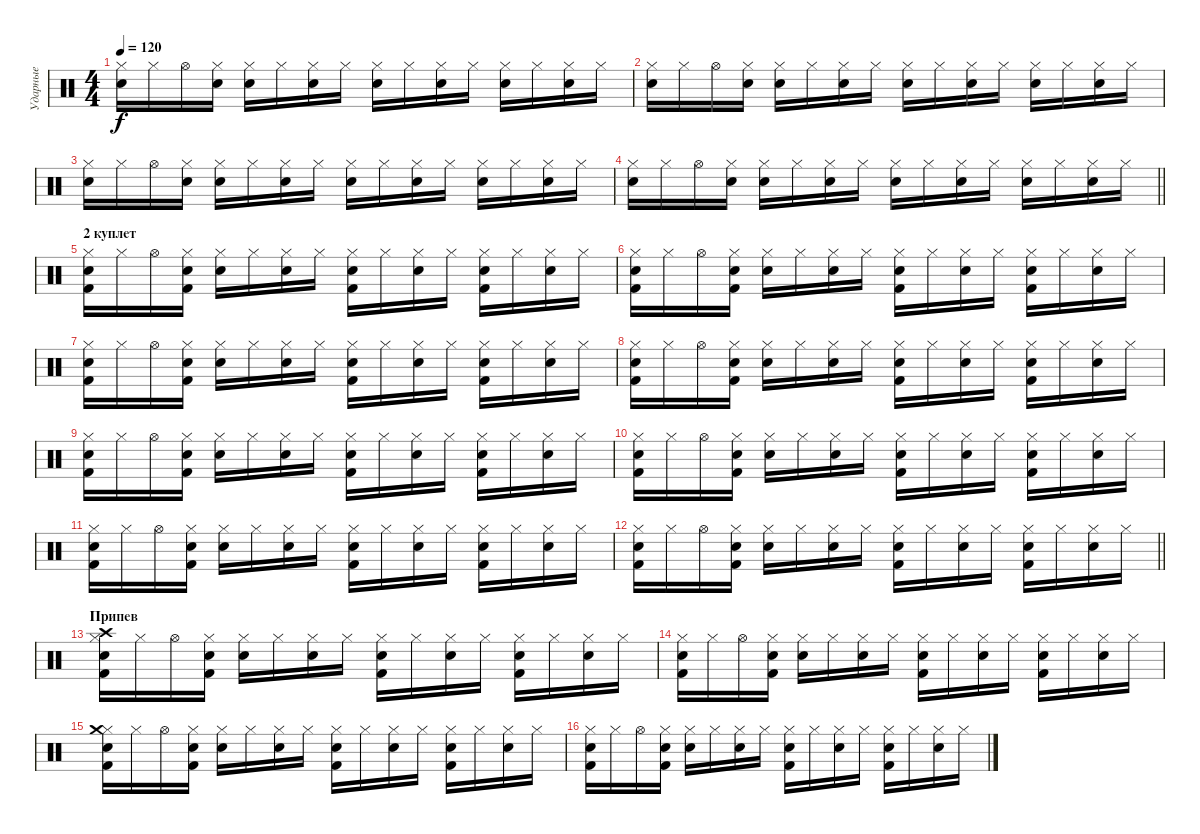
\track ("Ударные" "Ударные") {instrument percussion}
\staff {score}
\articulation defaults
\ts (4 4)
\tempo 120
\clef neutral
\ks c
("Hi-Hat (closed)" "Snare (hit) 2").16{dy f} "Hi-Hat (closed)".16 "Hi-Hat (open)".16 ("Hi-Hat (closed)" "Snare (hit) 2").16 ("Hi-Hat (closed)" "Snare (hit) 2").16 "Hi-Hat (closed)".16 ("Hi-Hat (closed)" "Snare (hit) 2").16 "Hi-Hat (closed)".16 ("Hi-Hat (closed)" "Snare (hit) 2").16 "Hi-Hat (closed)".16 ("Hi-Hat (closed)" "Snare (hit) 2").16 "Hi-Hat (closed)".16 ("Hi-Hat (closed)" "Snare (hit) 2").16 "Hi-Hat (closed)".16 ("Hi-Hat (closed)" "Snare (hit) 2").16 "Hi-Hat (closed)".16 |
("Hi-Hat (closed)" "Snare (hit) 2").16 "Hi-Hat (closed)".16 "Hi-Hat (open)".16 ("Hi-Hat (closed)" "Snare (hit) 2").16 ("Hi-Hat (closed)" "Snare (hit) 2").16 "Hi-Hat (closed)".16 ("Hi-Hat (closed)" "Snare (hit) 2").16 "Hi-Hat (closed)".16 ("Hi-Hat (closed)" "Snare (hit) 2").16 "Hi-Hat (closed)".16 ("Hi-Hat (closed)" "Snare (hit) 2").16 "Hi-Hat (closed)".16 ("Hi-Hat (closed)" "Snare (hit) 2").16 "Hi-Hat (closed)".16 ("Hi-Hat (closed)" "Snare (hit) 2").16 "Hi-Hat (closed)".16 |
("Hi-Hat (closed)" "Snare (hit) 2").16 "Hi-Hat (closed)".16 "Hi-Hat (open)".16 ("Hi-Hat (closed)" "Snare (hit) 2").16 ("Hi-Hat (closed)" "Snare (hit) 2").16 "Hi-Hat (closed)".16 ("Hi-Hat (closed)" "Snare (hit) 2").16 "Hi-Hat (closed)".16 ("Hi-Hat (closed)" "Snare (hit) 2").16 "Hi-Hat (closed)".16 ("Hi-Hat (closed)" "Snare (hit) 2").16 "Hi-Hat (closed)".16 ("Hi-Hat (closed)" "Snare (hit) 2").16 "Hi-Hat (closed)".16 ("Hi-Hat (closed)" "Snare (hit) 2").16 "Hi-Hat (closed)".16 |
\barLineRight lightlight
("Hi-Hat (closed)" "Snare (hit) 2").16 "Hi-Hat (closed)".16 "Hi-Hat (open)".16 ("Hi-Hat (closed)" "Snare (hit) 2").16 ("Hi-Hat (closed)" "Snare (hit) 2").16 "Hi-Hat (closed)".16 ("Hi-Hat (closed)" "Snare (hit) 2").16 "Hi-Hat (closed)".16 ("Hi-Hat (closed)" "Snare (hit) 2").16 "Hi-Hat (closed)".16 ("Hi-Hat (closed)" "Snare (hit) 2").16 "Hi-Hat (closed)".16 ("Hi-Hat (closed)" "Snare (hit) 2").16 "Hi-Hat (closed)".16 ("Hi-Hat (closed)" "Snare (hit) 2").16 "Hi-Hat (closed)".16 |
\section ("" "2 куплет")
("Hi-Hat (closed)" "Snare (hit) 2" "Kick (hit) 2").16 "Hi-Hat (closed)".16 "Hi-Hat (open)".16 ("Hi-Hat (closed)" "Snare (hit) 2" "Kick (hit) 2").16 ("Hi-Hat (closed)" "Snare (hit) 2").16 "Hi-Hat (closed)".16 ("Hi-Hat (closed)" "Snare (hit) 2").16 "Hi-Hat (closed)".16 ("Hi-Hat (closed)" "Snare (hit) 2" "Kick (hit) 2").16 "Hi-Hat (closed)".16 ("Hi-Hat (closed)" "Snare (hit) 2").16 "Hi-Hat (closed)".16 ("Hi-Hat (closed)" "Snare (hit) 2" "Kick (hit) 2").16 "Hi-Hat (closed)".16 ("Hi-Hat (closed)" "Snare (hit) 2").16 "Hi-Hat (closed)".16 |
("Hi-Hat (closed)" "Snare (hit) 2" "Kick (hit) 2").16 "Hi-Hat (closed)".16 "Hi-Hat (open)".16 ("Hi-Hat (closed)" "Snare (hit) 2" "Kick (hit) 2").16 ("Hi-Hat (closed)" "Snare (hit) 2").16 "Hi-Hat (closed)".16 ("Hi-Hat (closed)" "Snare (hit) 2").16 "Hi-Hat (closed)".16 ("Hi-Hat (closed)" "Snare (hit) 2" "Kick (hit) 2").16 "Hi-Hat (closed)".16 ("Hi-Hat (closed)" "Snare (hit) 2").16 "Hi-Hat (closed)".16 ("Hi-Hat (closed)" "Snare (hit) 2" "Kick (hit) 2").16 "Hi-Hat (closed)".16 ("Hi-Hat (closed)" "Snare (hit) 2").16 "Hi-Hat (closed)".16 |
("Hi-Hat (closed)" "Snare (hit) 2" "Kick (hit) 2").16 "Hi-Hat (closed)".16 "Hi-Hat (open)".16 ("Hi-Hat (closed)" "Snare (hit) 2" "Kick (hit) 2").16 ("Hi-Hat (closed)" "Snare (hit) 2").16 "Hi-Hat (closed)".16 ("Hi-Hat (closed)" "Snare (hit) 2").16 "Hi-Hat (closed)".16 ("Hi-Hat (closed)" "Snare (hit) 2" "Kick (hit) 2").16 "Hi-Hat (closed)".16 ("Hi-Hat (closed)" "Snare (hit) 2").16 "Hi-Hat (closed)".16 ("Hi-Hat (closed)" "Snare (hit) 2" "Kick (hit) 2").16 "Hi-Hat (closed)".16 ("Hi-Hat (closed)" "Snare (hit) 2").16 "Hi-Hat (closed)".16 |
("Hi-Hat (closed)" "Snare (hit) 2" "Kick (hit) 2").16 "Hi-Hat (closed)".16 "Hi-Hat (open)".16 ("Hi-Hat (closed)" "Snare (hit) 2" "Kick (hit) 2").16 ("Hi-Hat (closed)" "Snare (hit) 2").16 "Hi-Hat (closed)".16 ("Hi-Hat (closed)" "Snare (hit) 2").16 "Hi-Hat (closed)".16 ("Hi-Hat (closed)" "Snare (hit) 2" "Kick (hit) 2").16 "Hi-Hat (closed)".16 ("Hi-Hat (closed)" "Snare (hit) 2").16 "Hi-Hat (closed)".16 ("Hi-Hat (closed)" "Snare (hit) 2" "Kick (hit) 2").16 "Hi-Hat (closed)".16 ("Hi-Hat (closed)" "Snare (hit) 2").16 "Hi-Hat (closed)".16 |
("Hi-Hat (closed)" "Snare (hit) 2" "Kick (hit) 2").16 "Hi-Hat (closed)".16 "Hi-Hat (open)".16 ("Hi-Hat (closed)" "Snare (hit) 2" "Kick (hit) 2").16 ("Hi-Hat (closed)" "Snare (hit) 2").16 "Hi-Hat (closed)".16 ("Hi-Hat (closed)" "Snare (hit) 2").16 "Hi-Hat (closed)".16 ("Hi-Hat (closed)" "Snare (hit) 2" "Kick (hit) 2").16 "Hi-Hat (closed)".16 ("Hi-Hat (closed)" "Snare (hit) 2").16 "Hi-Hat (closed)".16 ("Hi-Hat (closed)" "Snare (hit) 2" "Kick (hit) 2").16 "Hi-Hat (closed)".16 ("Hi-Hat (closed)" "Snare (hit) 2").16 "Hi-Hat (closed)".16 |
("Hi-Hat (closed)" "Snare (hit) 2" "Kick (hit) 2").16 "Hi-Hat (closed)".16 "Hi-Hat (open)".16 ("Hi-Hat (closed)" "Snare (hit) 2" "Kick (hit) 2").16 ("Hi-Hat (closed)" "Snare (hit) 2").16 "Hi-Hat (closed)".16 ("Hi-Hat (closed)" "Snare (hit) 2").16 "Hi-Hat (closed)".16 ("Hi-Hat (closed)" "Snare (hit) 2" "Kick (hit) 2").16 "Hi-Hat (closed)".16 ("Hi-Hat (closed)" "Snare (hit) 2").16 "Hi-Hat (closed)".16 ("Hi-Hat (closed)" "Snare (hit) 2" "Kick (hit) 2").16 "Hi-Hat (closed)".16 ("Hi-Hat (closed)" "Snare (hit) 2").16 "Hi-Hat (closed)".16 |
("Hi-Hat (closed)" "Snare (hit) 2" "Kick (hit) 2").16 "Hi-Hat (closed)".16 "Hi-Hat (open)".16 ("Hi-Hat (closed)" "Snare (hit) 2" "Kick (hit) 2").16 ("Hi-Hat (closed)" "Snare (hit) 2").16 "Hi-Hat (closed)".16 ("Hi-Hat (closed)" "Snare (hit) 2").16 "Hi-Hat (closed)".16 ("Hi-Hat (closed)" "Snare (hit) 2" "Kick (hit) 2").16 "Hi-Hat (closed)".16 ("Hi-Hat (closed)" "Snare (hit) 2").16 "Hi-Hat (closed)".16 ("Hi-Hat (closed)" "Snare (hit) 2" "Kick (hit) 2").16 "Hi-Hat (closed)".16 ("Hi-Hat (closed)" "Snare (hit) 2").16 "Hi-Hat (closed)".16 |
\barLineRight lightlight
("Hi-Hat (closed)" "Snare (hit) 2" "Kick (hit) 2").16 "Hi-Hat (closed)".16 "Hi-Hat (open)".16 ("Hi-Hat (closed)" "Snare (hit) 2" "Kick (hit) 2").16 ("Hi-Hat (closed)" "Snare (hit) 2").16 "Hi-Hat (closed)".16 ("Hi-Hat (closed)" "Snare (hit) 2").16 "Hi-Hat (closed)".16 ("Hi-Hat (closed)" "Snare (hit) 2" "Kick (hit) 2").16 "Hi-Hat (closed)".16 ("Hi-Hat (closed)" "Snare (hit) 2").16 "Hi-Hat (closed)".16 ("Hi-Hat (closed)" "Snare (hit) 2" "Kick (hit) 2").16 "Hi-Hat (closed)".16 ("Hi-Hat (closed)" "Snare (hit) 2").16 "Hi-Hat (closed)".16 |
\section ("" "Припев")
("Hi-Hat (closed)" "Snare (hit) 2" "Kick (hit) 2" "Crash high (hit)").16 "Hi-Hat (closed)".16 "Hi-Hat (open)".16 ("Hi-Hat (closed)" "Snare (hit) 2" "Kick (hit) 2").16 ("Hi-Hat (closed)" "Snare (hit) 2").16 "Hi-Hat (closed)".16 ("Hi-Hat (closed)" "Snare (hit) 2").16 "Hi-Hat (closed)".16 ("Hi-Hat (closed)" "Snare (hit) 2" "Kick (hit) 2").16 "Hi-Hat (closed)".16 ("Hi-Hat (closed)" "Snare (hit) 2").16 "Hi-Hat (closed)".16 ("Hi-Hat (closed)" "Snare (hit) 2" "Kick (hit) 2").16 "Hi-Hat (closed)".16 ("Hi-Hat (closed)" "Snare (hit) 2").16 "Hi-Hat (closed)".16 |
("Hi-Hat (closed)" "Snare (hit) 2" "Kick (hit) 2").16 "Hi-Hat (closed)".16 "Hi-Hat (open)".16 ("Hi-Hat (closed)" "Snare (hit) 2" "Kick (hit) 2").16 ("Hi-Hat (closed)" "Snare (hit) 2").16 "Hi-Hat (closed)".16 ("Hi-Hat (closed)" "Snare (hit) 2").16 "Hi-Hat (closed)".16 ("Hi-Hat (closed)" "Snare (hit) 2" "Kick (hit) 2").16 "Hi-Hat (closed)".16 ("Hi-Hat (closed)" "Snare (hit) 2").16 "Hi-Hat (closed)".16 ("Hi-Hat (closed)" "Snare (hit) 2" "Kick (hit) 2").16 "Hi-Hat (closed)".16 ("Hi-Hat (closed)" "Snare (hit) 2").16 "Hi-Hat (closed)".16 |
("Hi-Hat (closed)" "Snare (hit) 2" "Kick (hit) 2" "Crash medium (hit)").16 "Hi-Hat (closed)".16 "Hi-Hat (open)".16 ("Hi-Hat (closed)" "Snare (hit) 2" "Kick (hit) 2").16 ("Hi-Hat (closed)" "Snare (hit) 2").16 "Hi-Hat (closed)".16 ("Hi-Hat (closed)" "Snare (hit) 2").16 "Hi-Hat (closed)".16 ("Hi-Hat (closed)" "Snare (hit) 2" "Kick (hit) 2").16 "Hi-Hat (closed)".16 ("Hi-Hat (closed)" "Snare (hit) 2").16 "Hi-Hat (closed)".16 ("Hi-Hat (closed)" "Snare (hit) 2" "Kick (hit) 2").16 "Hi-Hat (closed)".16 ("Hi-Hat (closed)" "Snare (hit) 2").16 "Hi-Hat (closed)".16 |
("Hi-Hat (closed)" "Snare (hit) 2" "Kick (hit) 2").16 "Hi-Hat (closed)".16 "Hi-Hat (open)".16 ("Hi-Hat (closed)" "Snare (hit) 2" "Kick (hit) 2").16 ("Hi-Hat (closed)" "Snare (hit) 2").16 "Hi-Hat (closed)".16 ("Hi-Hat (closed)" "Snare (hit) 2").16 "Hi-Hat (closed)".16 ("Hi-Hat (closed)" "Snare (hit) 2" "Kick (hit) 2").16 "Hi-Hat (closed)".16 ("Hi-Hat (closed)" "Snare (hit) 2").16 "Hi-Hat (closed)".16 ("Hi-Hat (closed)" "Snare (hit) 2" "Kick (hit) 2").16 "Hi-Hat (closed)".16 ("Hi-Hat (closed)" "Snare (hit) 2").16 "Hi-Hat (closed)".16
